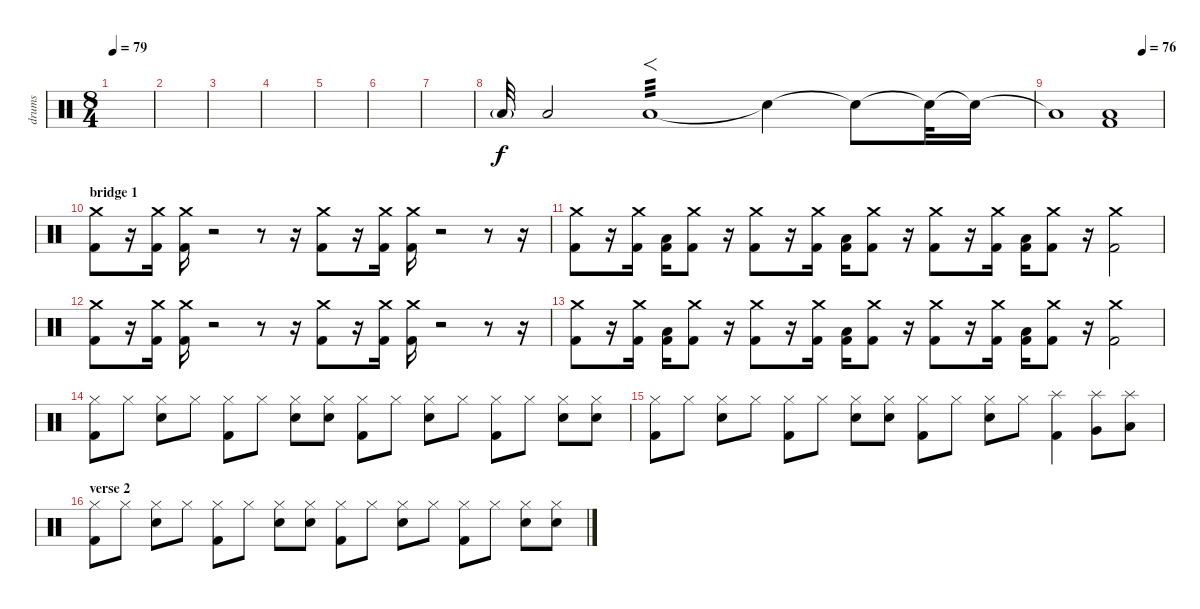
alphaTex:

\track ("drums" "drums") {instrument percussion}
\staff {score}
\articulation defaults
\ts (8 4)
\tempo 79
\clef neutral
\ks c
|
|
|
|
|
|
|
"Low Tom (hit)"{g}.32 "Low Floor Tom (hit)".2{dy f} "Low Floor Tom (hit)".1{f tp 3} "Snare (hit)"{t}.4 "Snare (hit)"{t}.8 "Snare (hit)"{t}.32 "Snare (hit)"{t}.16 |
\tempo (76 0.8125)
"Low Floor Tom (hit)"{t}.1 ("Kick (hit) 2" "Low Floor Tom (hit)").1 |
\section ("" "bridge 1")
("Kick (hit) 2" "Crash medium (hit)").8 r.16 ("Kick (hit) 2" "Crash medium (hit)").16 ("Kick (hit) 2" "Crash medium (hit)").16 r.2 r.8 r.16 ("Kick (hit) 2" "Crash medium (hit)").8 r.16 ("Kick (hit) 2" "Crash medium (hit)").16 ("Kick (hit) 2" "Crash medium (hit)").16 r.2 r.8 r.16 |
("Kick (hit) 2" "Crash medium (hit)").8 r.16 ("Kick (hit) 2" "Crash medium (hit)").16 ("Kick (hit) 2" "Low Floor Tom (hit)").16 ("Kick (hit) 2" "Crash medium (hit)").8 r.16 ("Kick (hit) 2" "Crash medium (hit)").8 r.16 ("Kick (hit) 2" "Crash medium (hit)").16 ("Kick (hit) 2" "Low Floor Tom (hit)").16 ("Kick (hit) 2" "Crash medium (hit)").8 r.16 ("Kick (hit) 2" "Crash medium (hit)").8 r.16 ("Kick (hit) 2" "Crash medium (hit)").16 ("Kick (hit) 2" "Low Floor Tom (hit)").16 ("Kick (hit) 2" "Crash medium (hit)").8 r.16 ("Kick (hit) 2" "Crash medium (hit)").2 |
("Kick (hit) 2" "Crash medium (hit)").8 r.16 ("Kick (hit) 2" "Crash medium (hit)").16 ("Kick (hit) 2" "Crash medium (hit)").16 r.2 r.8 r.16 ("Kick (hit) 2" "Crash medium (hit)").8 r.16 ("Kick (hit) 2" "Crash medium (hit)").16 ("Kick (hit) 2" "Crash medium (hit)").16 r.2 r.8 r.16 |
("Kick (hit) 2" "Crash medium (hit)").8 r.16 ("Kick (hit) 2" "Crash medium (hit)").16 ("Kick (hit) 2" "Low Floor Tom (hit)").16 ("Kick (hit) 2" "Crash medium (hit)").8 r.16 ("Kick (hit) 2" "Crash medium (hit)").8 r.16 ("Kick (hit) 2" "Crash medium (hit)").16 ("Kick (hit) 2" "Low Floor Tom (hit)").16 ("Kick (hit) 2" "Crash medium (hit)").8 r.16 ("Kick (hit) 2" "Crash medium (hit)").8 r.16 ("Kick (hit) 2" "Crash medium (hit)").16 ("Kick (hit) 2" "Low Floor Tom (hit)").16 ("Kick (hit) 2" "Crash medium (hit)").8 r.16 ("Kick (hit) 2" "Crash medium (hit)").2 |
("Kick (hit) 2" "Hi-Hat (closed)").8 "Hi-Hat (closed)".8 ("Electric Snare (hit)" "Hi-Hat (closed)").8 "Hi-Hat (closed)".8 ("Kick (hit) 2" "Hi-Hat (closed)").8 "Hi-Hat (closed)".8 ("Electric Snare (hit)" "Hi-Hat (closed)").8 ("Electric Snare (hit)" "Hi-Hat (closed)").8 ("Kick (hit) 2" "Hi-Hat (closed)").8 "Hi-Hat (closed)".8 ("Electric Snare (hit)" "Hi-Hat (closed)").8 "Hi-Hat (closed)".8 ("Kick (hit) 2" "Hi-Hat (closed)").8 "Hi-Hat (closed)".8 ("Electric Snare (hit)" "Hi-Hat (closed)").8 ("Electric Snare (hit)" "Hi-Hat (closed)").8 |
("Kick (hit) 2" "Hi-Hat (closed)").8 "Hi-Hat (closed)".8 ("Electric Snare (hit)" "Hi-Hat (closed)").8 "Hi-Hat (closed)".8 ("Kick (hit) 2" "Hi-Hat (closed)").8 "Hi-Hat (closed)".8 ("Electric Snare (hit)" "Hi-Hat (closed)").8 ("Electric Snare (hit)" "Hi-Hat (closed)").8 ("Kick (hit) 2" "Hi-Hat (closed)").8 "Hi-Hat (closed)".8 ("Electric Snare (hit)" "Hi-Hat (closed)").8 "Hi-Hat (closed)".8 ("Kick (hit) 2" "Splash (hit)").4 ("Very Low Tom (hit)" "Splash (hit)").8 ("Low Floor Tom (hit)" "Splash (hit)").8 |
\section ("" "verse 2")
("Kick (hit) 2" "Hi-Hat (closed)").8 "Hi-Hat (closed)".8 ("Electric Snare (hit)" "Hi-Hat (closed)").8 "Hi-Hat (closed)".8 ("Kick (hit) 2" "Hi-Hat (closed)").8 "Hi-Hat (closed)".8 ("Electric Snare (hit)" "Hi-Hat (closed)").8 ("Electric Snare (hit)" "Hi-Hat (closed)").8 ("Kick (hit) 2" "Hi-Hat (closed)").8 "Hi-Hat (closed)".8 ("Electric Snare (hit)" "Hi-Hat (closed)").8 "Hi-Hat (closed)".8 ("Kick (hit) 2" "Hi-Hat (closed)").8 "Hi-Hat (closed)".8 ("Electric Snare (hit)" "Hi-Hat (closed)").8 ("Electric Snare (hit)" "Hi-Hat (closed)").8
